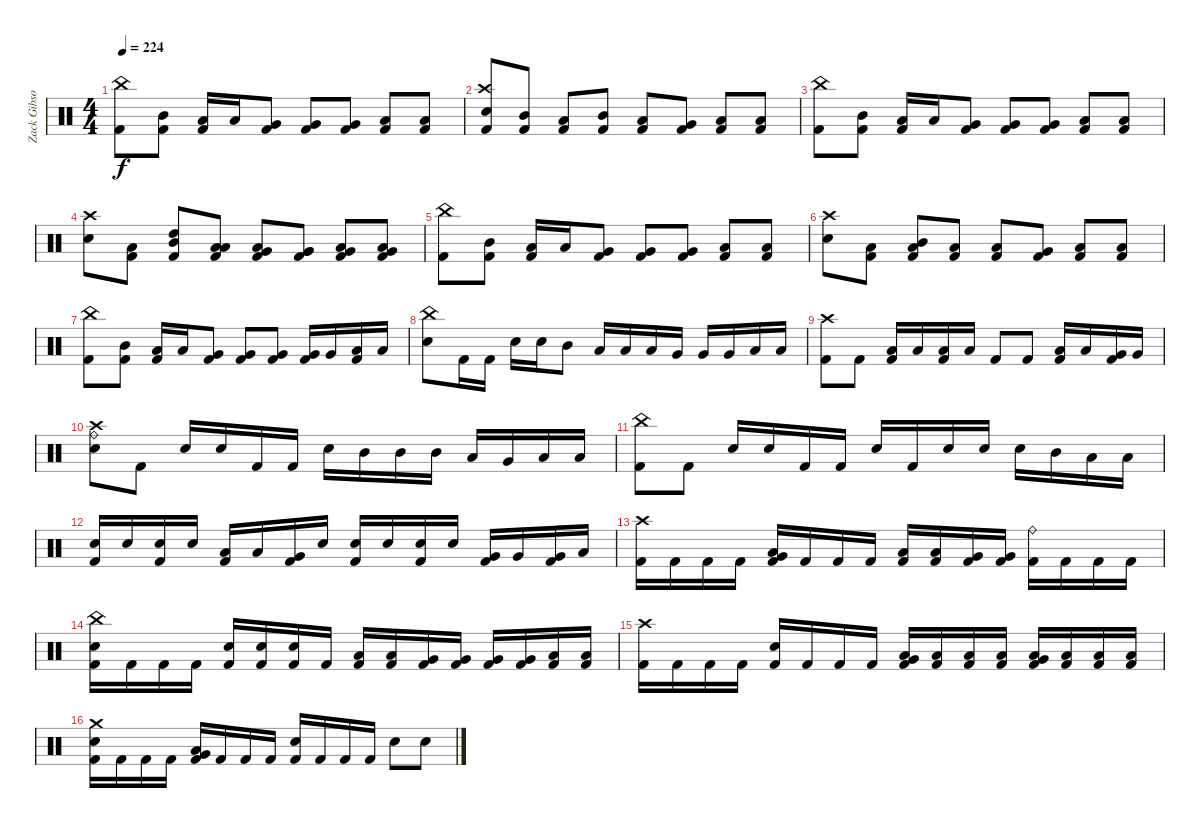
\track ("Zack Gibson" "Zack Gibso") {instrument percussion}
\staff {score}
\articulation defaults
\ts (4 4)
\tempo 224
\clef neutral
\ks c
("China (hit)" "Kick (hit) 2").8{dy f} ("Mid Tom (hit)" "Kick (hit) 2").8 ("Low Tom (hit)" "Kick (hit) 2").16 "Low Tom (hit)".16 ("Very Low Tom (hit)" "Kick (hit) 2").8 ("Very Low Tom (hit)" "Kick (hit) 2").8 ("Very Low Tom (hit)" "Kick (hit) 2").8 ("Low Floor Tom (hit)" "Kick (hit) 2").8 ("Low Floor Tom (hit)" "Kick (hit) 2").8 |
("Crash high (hit)" "Snare (hit) 2" "Kick (hit) 2").8 ("Mid Tom (hit)" "Kick (hit) 2").8 ("Low Tom (hit)" "Kick (hit) 2").8 ("Mid Tom (hit)" "Kick (hit) 2").8 ("Low Tom (hit)" "Kick (hit) 2").8 ("Very Low Tom (hit)" "Kick (hit) 2").8 ("Low Floor Tom (hit)" "Kick (hit) 2").8 ("Low Floor Tom (hit)" "Kick (hit) 2").8 |
("China (hit)" "Kick (hit) 2").8 ("Mid Tom (hit)" "Kick (hit) 2").8 ("Low Tom (hit)" "Kick (hit) 2").16 "Low Tom (hit)".16 ("Very Low Tom (hit)" "Kick (hit) 2").8 ("Very Low Tom (hit)" "Kick (hit) 2").8 ("Very Low Tom (hit)" "Kick (hit) 2").8 ("Low Floor Tom (hit)" "Kick (hit) 2").8 ("Low Floor Tom (hit)" "Kick (hit) 2").8 |
("Crash high (hit)" "Snare (hit) 2").8 ("Low Tom (hit)" "Kick (hit) 2").8 ("High Tom (hit)" "Mid Tom (hit)" "Kick (hit) 2").8 ("Low Tom (hit)" "Low Tom (hit)" "Kick (hit) 2").8 ("Very Low Tom (hit)" "Low Tom (hit)" "Kick (hit) 2").8 ("Very Low Tom (hit)" "Very Low Tom (hit)" "Kick (hit) 2").8 ("Very Low Tom (hit)" "Low Floor Tom (hit)" "Kick (hit) 2").8 ("Very Low Tom (hit)" "Low Floor Tom (hit)" "Kick (hit) 2").8 |
("China (hit)" "Kick (hit) 2").8 ("Mid Tom (hit)" "Kick (hit) 2").8 ("Low Tom (hit)" "Kick (hit) 2").16 "Low Tom (hit)".16 ("Very Low Tom (hit)" "Kick (hit) 2").8 ("Very Low Tom (hit)" "Kick (hit) 2").8 ("Very Low Tom (hit)" "Kick (hit) 2").8 ("Low Floor Tom (hit)" "Kick (hit) 2").8 ("Low Floor Tom (hit)" "Kick (hit) 2").8 |
("Crash high (hit)" "Snare (hit) 2").8 ("Low Floor Tom (hit)" "Kick (hit) 2").8 ("Mid Tom (hit)" "Low Tom (hit)" "Kick (hit) 2").8 ("Low Floor Tom (hit)" "Kick (hit) 2").8 ("Low Tom (hit)" "Kick (hit) 2").8 ("Very Low Tom (hit)" "Kick (hit) 2").8 ("Low Floor Tom (hit)" "Kick (hit) 2").8 ("Low Floor Tom (hit)" "Kick (hit) 2").8 |
("China (hit)" "Kick (hit) 2").8 ("Mid Tom (hit)" "Kick (hit) 2").8 ("Low Tom (hit)" "Kick (hit) 2").16 "Low Tom (hit)".16 ("Very Low Tom (hit)" "Kick (hit) 2").8 ("Very Low Tom (hit)" "Kick (hit) 2").8 ("Very Low Tom (hit)" "Kick (hit) 2").8 ("Very Low Tom (hit)" "Kick (hit) 2").16 "Very Low Tom (hit)".16 ("Low Floor Tom (hit)" "Kick (hit) 2").16 "Low Floor Tom (hit)".16 |
("China (hit)" "Snare (hit) 2").8 "Kick (hit) 2".16 "Kick (hit) 2".16 "Snare (hit) 2".16 "Snare (hit) 2".16 "Mid Tom (hit)".8 "Low Tom (hit)".16 "Low Tom (hit)".16 "Low Tom (hit)".16 "Very Low Tom (hit)".16 "Very Low Tom (hit)".16 "Very Low Tom (hit)".16 "Low Floor Tom (hit)".16 "Low Floor Tom (hit)".16 |
("Crash high (hit)" "Kick (hit) 2").8 "Kick (hit) 2".8 ("Low Tom (hit)" "Kick (hit) 2").16 "Low Tom (hit)".16 ("Low Tom (hit)" "Kick (hit) 2").16 "Low Tom (hit)".16 "Kick (hit) 2".8 "Kick (hit) 2".8 ("Low Tom (hit)" "Kick (hit) 2").16 "Low Tom (hit)".16 ("Very Low Tom (hit)" "Kick (hit) 2").16 "Very Low Tom (hit)".16 |
("Crash high (hit)" "Ride (bell)" "Snare (hit) 2").8 "Kick (hit) 2".8 "Snare (hit) 2".16 "Snare (hit) 2".16 "Kick (hit) 2".16 "Kick (hit) 2".16 "Snare (hit) 2".16 "Mid Tom (hit)".16 "Mid Tom (hit)".16 "Mid Tom (hit)".16 "Low Tom (hit)".16 "Very Low Tom (hit)".16 "Low Floor Tom (hit)".16 "Low Floor Tom (hit)".16 |
("China (hit)" "Kick (hit) 2").8 "Kick (hit) 2".8 "Snare (hit) 2".16 "Snare (hit) 2".16 "Kick (hit) 2".16 "Kick (hit) 2".16 "Snare (hit) 2".16 "Kick (hit) 2".16 "Snare (hit) 2".16 "Snare (hit) 2".16 "Snare (hit) 2".16 "Mid Tom (hit)".16 "Low Tom (hit)".16 "Low Tom (hit)".16 |
("Snare (hit) 2" "Kick (hit) 2").16 "Snare (hit) 2".16 ("Snare (hit) 2" "Kick (hit) 2").16 "Snare (hit) 2".16 ("Low Tom (hit)" "Kick (hit) 2").16 "Low Tom (hit)".16 ("Very Low Tom (hit)" "Kick (hit) 2").16 "Snare (hit) 2".16 ("Snare (hit) 2" "Kick (hit) 2").16 "Snare (hit) 2".16 ("Snare (hit) 2" "Kick (hit) 2").16 "Snare (hit) 2".16 ("Very Low Tom (hit)" "Kick (hit) 2").16 "Very Low Tom (hit)".16 ("Very Low Tom (hit)" "Kick (hit) 2").16 "Low Floor Tom (hit)".16 |
("Crash high (hit)" "Kick (hit) 2").16 "Kick (hit) 2".16 "Kick (hit) 2".16 "Kick (hit) 2".16 ("Low Tom (hit)" "Very Low Tom (hit)" "Kick (hit) 2").16 "Kick (hit) 2".16 "Kick (hit) 2".16 "Kick (hit) 2".16 ("Low Tom (hit)" "Kick (hit) 2").16 ("Low Tom (hit)" "Kick (hit) 2").16 ("Very Low Tom (hit)" "Kick (hit) 2").16 ("Very Low Tom (hit)" "Kick (hit) 2").16 ("Ride (bell)" "Kick (hit) 2").16 "Kick (hit) 2".16 "Kick (hit) 2".16 "Kick (hit) 2".16 |
("China (hit)" "Snare (hit) 2" "Kick (hit) 2").16 "Kick (hit) 2".16 "Kick (hit) 2".16 "Kick (hit) 2".16 ("Snare (hit) 2" "Kick (hit) 2").16 ("Snare (hit) 2" "Kick (hit) 2").16 ("Snare (hit) 2" "Kick (hit) 2").16 "Kick (hit) 2".16 ("Low Tom (hit)" "Kick (hit) 2").16 ("Low Tom (hit)" "Kick (hit) 2").16 ("Very Low Tom (hit)" "Kick (hit) 2").16 ("Very Low Tom (hit)" "Kick (hit) 2").16 ("Very Low Tom (hit)" "Kick (hit) 2").16 ("Very Low Tom (hit)" "Kick (hit) 2").16 ("Low Floor Tom (hit)" "Kick (hit) 2").16 ("Low Floor Tom (hit)" "Kick (hit) 2").16 |
("Crash high (hit)" "Kick (hit) 2").16 "Kick (hit) 2".16 "Kick (hit) 2".16 "Kick (hit) 2".16 ("Snare (hit) 2" "Kick (hit) 2").16 "Kick (hit) 2".16 "Kick (hit) 2".16 "Kick (hit) 2".16 ("Very Low Tom (hit)" "Low Tom (hit)" "Kick (hit) 2").16 ("Low Floor Tom (hit)" "Kick (hit) 2").16 ("Low Floor Tom (hit)" "Kick (hit) 2").16 ("Low Floor Tom (hit)" "Kick (hit) 2").16 ("Low Floor Tom (hit)" "Very Low Tom (hit)" "Kick (hit) 2").16 ("Low Floor Tom (hit)" "Kick (hit) 2").16 ("Low Floor Tom (hit)" "Kick (hit) 2").16 ("Low Floor Tom (hit)" "Kick (hit) 2").16 |
("Crash medium (hit)" "Snare (hit) 2" "Kick (hit) 2").16 "Kick (hit) 2".16 "Kick (hit) 2".16 "Kick (hit) 2".16 ("Low Floor Tom (hit)" "Very Low Tom (hit)" "Kick (hit) 2").16 "Kick (hit) 2".16 "Kick (hit) 2".16 "Kick (hit) 2".16 ("Snare (hit) 2" "Kick (hit) 2").16 "Kick (hit) 2".16 "Kick (hit) 2".16 "Kick (hit) 2".16 "Snare (hit) 2".8 "Snare (hit) 2".8
